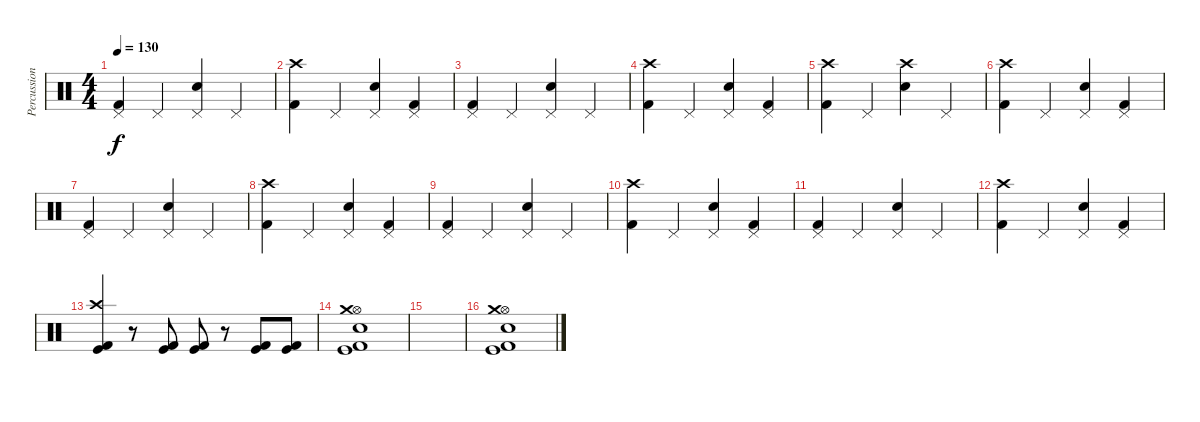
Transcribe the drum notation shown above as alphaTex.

\track ("Percussions" "Percussion") {instrument percussion}
\staff {score}
\articulation defaults
\ts (4 4)
\tempo 130
\clef neutral
\ks c
("Pedal Hi-Hat (hit)" "Kick (hit) 2").4{dy f} "Pedal Hi-Hat (hit)".4 ("Pedal Hi-Hat (hit)" "Snare (hit) 2").4 "Pedal Hi-Hat (hit)".4 |
("Crash high (hit)" "Kick (hit) 2").4 "Pedal Hi-Hat (hit)".4 ("Pedal Hi-Hat (hit)" "Snare (hit) 2").4 ("Pedal Hi-Hat (hit)" "Kick (hit) 2").4 |
("Pedal Hi-Hat (hit)" "Kick (hit) 2").4 "Pedal Hi-Hat (hit)".4 ("Pedal Hi-Hat (hit)" "Snare (hit) 2").4 "Pedal Hi-Hat (hit)".4 |
("Crash high (hit)" "Kick (hit) 2").4 "Pedal Hi-Hat (hit)".4 ("Pedal Hi-Hat (hit)" "Snare (hit) 2").4 ("Pedal Hi-Hat (hit)" "Kick (hit) 2").4 |
("Crash high (hit)" "Kick (hit) 2").4 "Pedal Hi-Hat (hit)".4 ("Crash high (hit)" "Snare (hit) 2").4 "Pedal Hi-Hat (hit)".4 |
("Crash high (hit)" "Kick (hit) 2").4 "Pedal Hi-Hat (hit)".4 ("Pedal Hi-Hat (hit)" "Snare (hit) 2").4 ("Pedal Hi-Hat (hit)" "Kick (hit) 2").4 |
("Pedal Hi-Hat (hit)" "Kick (hit) 2").4 "Pedal Hi-Hat (hit)".4 ("Pedal Hi-Hat (hit)" "Snare (hit) 2").4 "Pedal Hi-Hat (hit)".4 |
("Crash high (hit)" "Kick (hit) 2").4 "Pedal Hi-Hat (hit)".4 ("Pedal Hi-Hat (hit)" "Snare (hit) 2").4 ("Pedal Hi-Hat (hit)" "Kick (hit) 2").4 |
("Pedal Hi-Hat (hit)" "Kick (hit) 2").4 "Pedal Hi-Hat (hit)".4 ("Pedal Hi-Hat (hit)" "Snare (hit) 2").4 "Pedal Hi-Hat (hit)".4 |
("Crash high (hit)" "Kick (hit) 2").4 "Pedal Hi-Hat (hit)".4 ("Pedal Hi-Hat (hit)" "Snare (hit) 2").4 ("Pedal Hi-Hat (hit)" "Kick (hit) 2").4 |
("Pedal Hi-Hat (hit)" "Kick (hit) 2").4 "Pedal Hi-Hat (hit)".4 ("Pedal Hi-Hat (hit)" "Snare (hit) 2").4 "Pedal Hi-Hat (hit)".4 |
("Crash high (hit)" "Kick (hit) 2").4 "Pedal Hi-Hat (hit)".4 ("Pedal Hi-Hat (hit)" "Snare (hit) 2").4 ("Pedal Hi-Hat (hit)" "Kick (hit) 2").4 |
("Crash high (hit)" "Kick (hit)" "Kick (hit) 2").4 r.8 ("Kick (hit)" "Kick (hit) 2").8 ("Kick (hit)" "Kick (hit) 2").8 r.8 ("Kick (hit)" "Kick (hit) 2").8 ("Kick (hit)" "Kick (hit) 2").8 |
("Hi-Hat (open)" "Crash medium (hit)" "Kick (hit)" "Snare (hit) 2" "Kick (hit) 2").1 |
|
("Hi-Hat (open)" "Crash medium (hit)" "Kick (hit)" "Snare (hit) 2" "Kick (hit) 2").1
